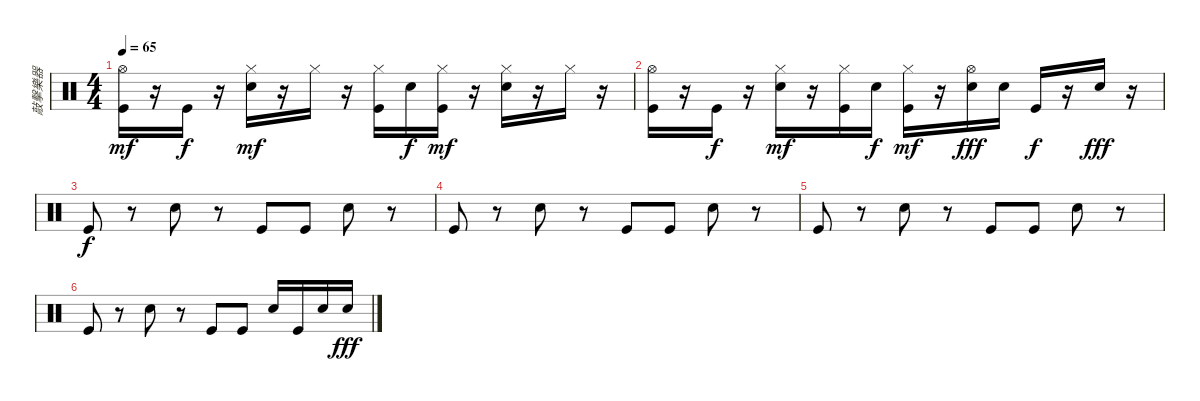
\track ("敲擊樂器" "敲擊樂器") {instrument percussion}
\staff {score}
\articulation defaults
\ts (4 4)
\tempo 65
\clef neutral
\ks c
("Hi-Hat (open)" "Kick (hit)").16{dy mf} r.16 "Kick (hit)".16{dy f} r.16 ("Hi-Hat (closed)" "Electric Snare (hit)").16{dy mf} r.16 "Hi-Hat (closed)".16 r.16 ("Hi-Hat (closed)" "Kick (hit)").16 "Electric Snare (hit)".16{dy f} ("Hi-Hat (closed)" "Kick (hit)").16{dy mf} r.16 ("Hi-Hat (closed)" "Electric Snare (hit)").16 r.16 "Hi-Hat (closed)".16 r.16 |
("Hi-Hat (open)" "Kick (hit)").16 r.16 "Kick (hit)".16{dy f} r.16 ("Hi-Hat (closed)" "Electric Snare (hit)").16{dy mf} r.16 ("Hi-Hat (closed)" "Kick (hit)").16 "Electric Snare (hit)".16{dy f} ("Hi-Hat (closed)" "Kick (hit)").16{dy mf} r.16 ("Hi-Hat (open)" "Electric Snare (hit)").16{dy fff} "Electric Snare (hit)".16 "Kick (hit)".16{dy f} r.16 "Electric Snare (hit)".16{dy fff} r.16 |
"Kick (hit)".8{dy f} r.8 "Electric Snare (hit)".8 r.8 "Kick (hit)".8 "Kick (hit)".8 "Electric Snare (hit)".8 r.8 |
"Kick (hit)".8 r.8 "Electric Snare (hit)".8 r.8 "Kick (hit)".8 "Kick (hit)".8 "Electric Snare (hit)".8 r.8 |
"Kick (hit)".8 r.8 "Electric Snare (hit)".8 r.8 "Kick (hit)".8 "Kick (hit)".8 "Electric Snare (hit)".8 r.8 |
"Kick (hit)".8 r.8 "Electric Snare (hit)".8 r.8 "Kick (hit)".8 "Kick (hit)".8 "Electric Snare (hit)".16 "Kick (hit)".16 "Electric Snare (hit)".16 "Electric Snare (hit)".16{dy fff}
